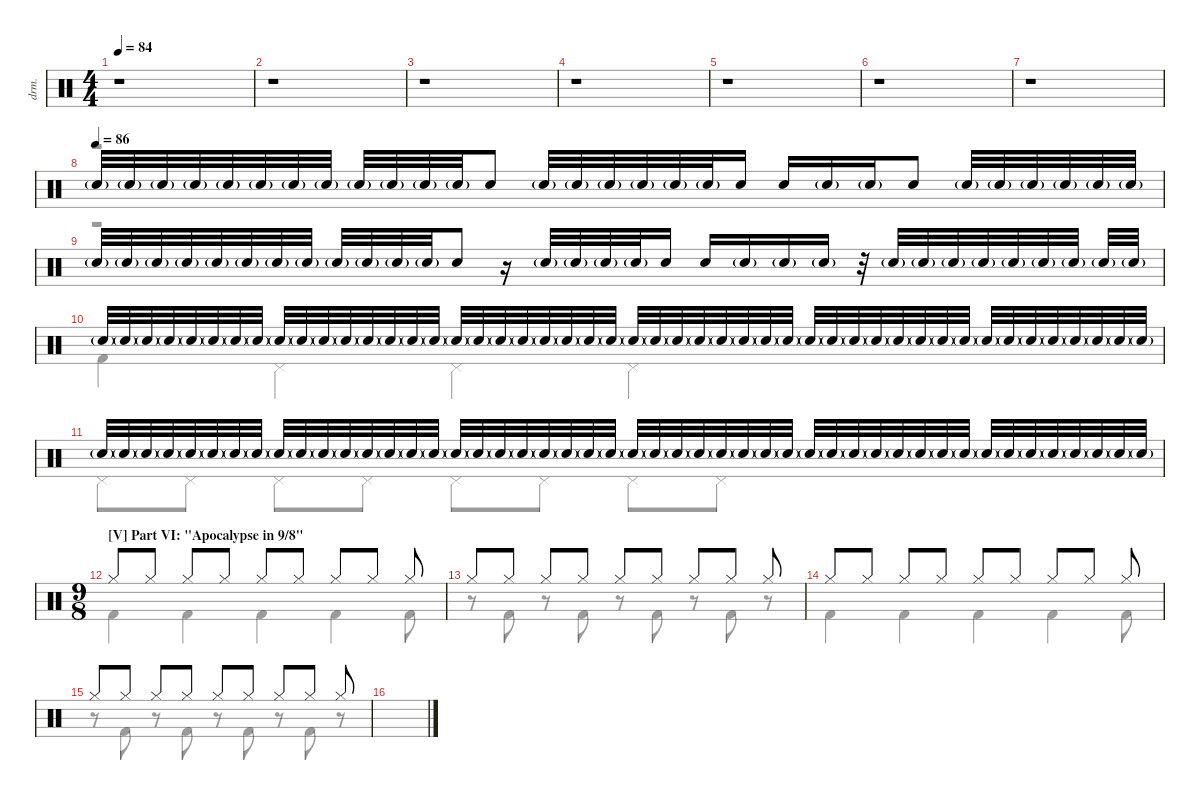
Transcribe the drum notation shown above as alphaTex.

\defaultSystemsLayout 4
\hideDynamics
\bracketExtendMode nobrackets
\track ("Drums" "drm.") {instrument percussion}
\staff {score}
\articulation defaults
\voice
\ts (4 4)
\tempo 84
\clef neutral
\ks c
r.1{dy mf} |
r.1 |
r.1 |
r.1 |
r.1 |
r.1 |
r.1 |
\tempo 86
\scale
0.511207 "Snare (hit) 2"{g}.32 "Snare (hit) 2"{g}.32 "Snare (hit) 2"{g}.32 "Snare (hit) 2"{g}.32 "Snare (hit) 2"{g}.32 "Snare (hit) 2"{g}.32 "Snare (hit) 2"{g}.32 "Snare (hit) 2"{g}.32 "Snare (hit) 2"{g}.32 "Snare (hit) 2"{g}.32 "Snare (hit) 2"{g}.32 "Snare (hit) 2"{g}.32 "Snare (hit) 2".8 "Snare (hit) 2"{g}.32 "Snare (hit) 2"{g}.32 "Snare (hit) 2"{g}.32 "Snare (hit) 2"{g}.32 "Snare (hit) 2"{g}.32 "Snare (hit) 2"{g}.32 "Snare (hit) 2".16 "Snare (hit) 2".16 "Snare (hit) 2"{g}.16 "Snare (hit) 2"{g}.16 "Snare (hit) 2".8 "Snare (hit) 2"{g}.32 "Snare (hit) 2"{g}.32 "Snare (hit) 2"{g}.32 "Snare (hit) 2"{g}.32 "Snare (hit) 2"{g}.32 "Snare (hit) 2"{g}.32 |
\scale
0.488793 "Snare (hit) 2"{g}.32 "Snare (hit) 2"{g}.32 "Snare (hit) 2"{g}.32 "Snare (hit) 2"{g}.32 "Snare (hit) 2"{g}.32 "Snare (hit) 2"{g}.32 "Snare (hit) 2"{g}.32 "Snare (hit) 2"{g}.32 "Snare (hit) 2"{g}.32 "Snare (hit) 2"{g}.32 "Snare (hit) 2"{g}.32 "Snare (hit) 2"{g}.32 "Snare (hit) 2".8 r.16 "Snare (hit) 2"{g}.32 "Snare (hit) 2"{g}.32 "Snare (hit) 2"{g}.32 "Snare (hit) 2"{g}.32 "Snare (hit) 2".16 "Snare (hit) 2".16 "Snare (hit) 2"{g}.16 "Snare (hit) 2"{g}.16 "Snare (hit) 2"{g}.16 r.32 "Snare (hit) 2"{g}.32 "Snare (hit) 2"{g}.32 "Snare (hit) 2"{g}.32 "Snare (hit) 2"{g}.32 "Snare (hit) 2"{g}.32 "Snare (hit) 2"{g}.32 "Snare (hit) 2"{g}.32 "Snare (hit) 2"{g}.32 "Snare (hit) 2"{g}.32 |
"Snare (hit) 2"{g}.32 "Snare (hit) 2"{g}.32 "Snare (hit) 2"{g}.32 "Snare (hit) 2"{g}.32 "Snare (hit) 2"{g}.32 "Snare (hit) 2"{g}.32 "Snare (hit) 2"{g}.32 "Snare (hit) 2"{g}.32 "Snare (hit) 2"{g}.32 "Snare (hit) 2"{g}.32 "Snare (hit) 2"{g}.32 "Snare (hit) 2"{g}.32 "Snare (hit) 2"{g}.32 "Snare (hit) 2"{g}.32 "Snare (hit) 2"{g}.32 "Snare (hit) 2"{g}.32 "Snare (hit) 2"{g}.32 "Snare (hit) 2"{g}.32 "Snare (hit) 2"{g}.32 "Snare (hit) 2"{g}.32 "Snare (hit) 2"{g}.32 "Snare (hit) 2"{g}.32 "Snare (hit) 2"{g}.32 "Snare (hit) 2"{g}.32 "Snare (hit) 2"{g}.32 "Snare (hit) 2"{g}.32 "Snare (hit) 2"{g}.32 "Snare (hit) 2"{g}.32 "Snare (hit) 2"{g}.32 "Snare (hit) 2"{g}.32 "Snare (hit) 2"{g}.32 "Snare (hit) 2"{g}.32 "Snare (hit) 2"{g}.32 "Snare (hit) 2"{g}.32 "Snare (hit) 2"{g}.32 "Snare (hit) 2"{g}.32 "Snare (hit) 2"{g}.32 "Snare (hit) 2"{g}.32 "Snare (hit) 2"{g}.32 "Snare (hit) 2"{g}.32 "Snare (hit) 2"{g}.32 "Snare (hit) 2"{g}.32 "Snare (hit) 2"{g}.32 "Snare (hit) 2"{g}.32 "Snare (hit) 2"{g}.32 "Snare (hit) 2"{g}.32 "Snare (hit) 2"{g}.32 "Snare (hit) 2"{g}.32 |
"Snare (hit) 2"{g}.32 "Snare (hit) 2"{g}.32 "Snare (hit) 2"{g}.32 "Snare (hit) 2"{g}.32 "Snare (hit) 2"{g}.32 "Snare (hit) 2"{g}.32 "Snare (hit) 2"{g}.32 "Snare (hit) 2"{g}.32 "Snare (hit) 2"{g}.32 "Snare (hit) 2"{g}.32 "Snare (hit) 2"{g}.32 "Snare (hit) 2"{g}.32 "Snare (hit) 2"{g}.32 "Snare (hit) 2"{g}.32 "Snare (hit) 2"{g}.32 "Snare (hit) 2"{g}.32 "Snare (hit) 2"{g}.32 "Snare (hit) 2"{g}.32 "Snare (hit) 2"{g}.32 "Snare (hit) 2"{g}.32 "Snare (hit) 2"{g}.32 "Snare (hit) 2"{g}.32 "Snare (hit) 2"{g}.32 "Snare (hit) 2"{g}.32 "Snare (hit) 2"{g}.32 "Snare (hit) 2"{g}.32 "Snare (hit) 2"{g}.32 "Snare (hit) 2"{g}.32 "Snare (hit) 2"{g}.32 "Snare (hit) 2"{g}.32 "Snare (hit) 2"{g}.32 "Snare (hit) 2"{g}.32 "Snare (hit) 2"{g}.32 "Snare (hit) 2"{g}.32 "Snare (hit) 2"{g}.32 "Snare (hit) 2"{g}.32 "Snare (hit) 2"{g}.32 "Snare (hit) 2"{g}.32 "Snare (hit) 2"{g}.32 "Snare (hit) 2"{g}.32 "Snare (hit) 2"{g}.32 "Snare (hit) 2"{g}.32 "Snare (hit) 2"{g}.32 "Snare (hit) 2"{g}.32 "Snare (hit) 2"{g}.32 "Snare (hit) 2"{g}.32 "Snare (hit) 2"{g}.32 "Snare (hit) 2"{g}.32 |
\ts (9 8)
\beaming (8 3 3 3)
\section ("V" "Part VI: \"Apocalypse in 9/8\"")
"Hi-Hat (closed)".8 "Hi-Hat (closed)".8{beam split} "Hi-Hat (closed)".8{beam merge} "Hi-Hat (closed)".8{beam split} "Hi-Hat (closed)".8 "Hi-Hat (closed)".8 "Hi-Hat (closed)".8 "Hi-Hat (closed)".8{beam split} "Hi-Hat (closed)".8 |
"Hi-Hat (closed)".8 "Hi-Hat (closed)".8{beam split} "Hi-Hat (closed)".8{beam merge} "Hi-Hat (closed)".8{beam split} "Hi-Hat (closed)".8 "Hi-Hat (closed)".8 "Hi-Hat (closed)".8 "Hi-Hat (closed)".8{beam split} "Hi-Hat (closed)".8 |
"Hi-Hat (closed)".8 "Hi-Hat (closed)".8{beam split} "Hi-Hat (closed)".8{beam merge} "Hi-Hat (closed)".8{beam split} "Hi-Hat (closed)".8 "Hi-Hat (closed)".8 "Hi-Hat (closed)".8 "Hi-Hat (closed)".8{beam split} "Hi-Hat (closed)".8 |
"Hi-Hat (closed)".8 "Hi-Hat (closed)".8{beam split} "Hi-Hat (closed)".8{beam merge} "Hi-Hat (closed)".8{beam split} "Hi-Hat (closed)".8 "Hi-Hat (closed)".8 "Hi-Hat (closed)".8 "Hi-Hat (closed)".8{beam split} "Hi-Hat (closed)".8 |
\simile firstofdouble
\voice
\clef neutral
\ottava regular
\simile none
\ks c
|
|
|
|
|
|
|
\scale
0.511207 r.1 |
\scale
0.488793 r.1 |
"Kick (hit) 2".4 "Pedal Hi-Hat (hit)".4 "Pedal Hi-Hat (hit)".4 "Pedal Hi-Hat (hit)".4 |
"Pedal Hi-Hat (hit)".8 "Pedal Hi-Hat (hit)".8 "Pedal Hi-Hat (hit)".8 "Pedal Hi-Hat (hit)".8 "Pedal Hi-Hat (hit)".8 "Pedal Hi-Hat (hit)".8 "Pedal Hi-Hat (hit)".8 "Pedal Hi-Hat (hit)".8 |
"Kick (hit) 2".4 "Kick (hit) 2".4 "Kick (hit) 2".4 "Kick (hit) 2".4 "Kick (hit) 2".8 |
r.8 "Kick (hit) 2".8 r.8 "Kick (hit) 2".8{beam split} r.8{beam split} "Kick (hit) 2".8 r.8 "Kick (hit) 2".8 r.8 |
"Kick (hit) 2".4 "Kick (hit) 2".4 "Kick (hit) 2".4 "Kick (hit) 2".4 "Kick (hit) 2".8 |
r.8 "Kick (hit) 2".8 r.8 "Kick (hit) 2".8{beam split} r.8{beam split} "Kick (hit) 2".8 r.8 "Kick (hit) 2".8 r.8 |
\simile firstofdouble
